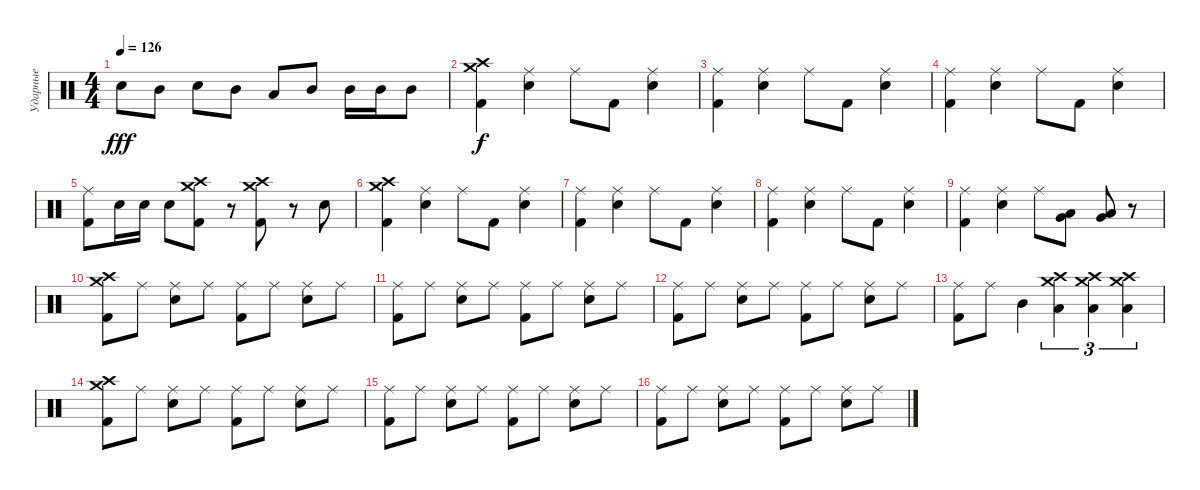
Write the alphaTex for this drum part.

\track ("Ударные" "Ударные") {instrument percussion}
\staff {score}
\articulation defaults
\ts (4 4)
\tempo 126
\clef neutral
\ks c "Snare (hit) 2".8{dy fff} "Mid Tom (hit)".8 "Electric Snare (hit)".8 "Mid Tom (hit)".8 "Low Tom (hit)".8 "Mid Tom (hit)".8 "Mid Tom (hit)".16 "Mid Tom (hit)".16 "Mid Tom (hit)".8
|
("Kick (hit) 2" "Crash high (hit)" "Crash medium (hit)").4{dy f} ("Snare (hit) 2" "Ride (middle)").4 "Ride (middle)".8 "Kick (hit) 2".8 ("Snare (hit) 2" "Ride (middle)").4 |
("Kick (hit) 2" "Ride (middle)").4 ("Snare (hit) 2" "Ride (middle)").4 "Ride (middle)".8 "Kick (hit) 2".8 ("Snare (hit) 2" "Ride (middle)").4 |
("Kick (hit) 2" "Ride (middle)").4 ("Snare (hit) 2" "Ride (middle)").4 "Ride (middle)".8 "Kick (hit) 2".8 ("Snare (hit) 2" "Ride (middle)").4 |
("Kick (hit) 2" "Ride (middle)").8 "Snare (hit) 2".16 "Snare (hit) 2".16 "Snare (hit) 2".8 ("Kick (hit) 2" "Crash high (hit)" "Crash medium (hit)").8 r.8 ("Kick (hit) 2" "Crash medium (hit)" "Crash high (hit)").8 r.8 "Snare (hit) 2".8 |
("Kick (hit) 2" "Crash high (hit)" "Crash medium (hit)").4 ("Snare (hit) 2" "Ride (middle)").4 "Ride (middle)".8 "Kick (hit) 2".8 ("Snare (hit) 2" "Ride (middle)").4 |
("Kick (hit) 2" "Ride (middle)").4 ("Snare (hit) 2" "Ride (middle)").4 "Ride (middle)".8 "Kick (hit) 2".8 ("Snare (hit) 2" "Ride (middle)").4 |
("Kick (hit) 2" "Ride (middle)").4 ("Snare (hit) 2" "Ride (middle)").4 "Ride (middle)".8 "Kick (hit) 2".8 ("Snare (hit) 2" "Ride (middle)").4 |
("Kick (hit) 2" "Ride (middle)").4 ("Snare (hit) 2" "Ride (middle)").4 "Ride (middle)".8 ("Low Tom (hit)" "Very Low Tom (hit)").8 ("Low Tom (hit)" "Very Low Tom (hit)").8 r.8 |
("Kick (hit) 2" "Crash high (hit)" "Crash medium (hit)").8 "Ride (middle)".8 ("Snare (hit) 2" "Ride (middle)").8 "Ride (middle)".8 ("Kick (hit) 2" "Ride (middle)").8 "Ride (middle)".8 ("Snare (hit) 2" "Ride (middle)").8 "Ride (middle)".8 |
("Kick (hit) 2" "Ride (middle)").8 "Ride (middle)".8 ("Snare (hit) 2" "Ride (middle)").8 "Ride (middle)".8 ("Kick (hit) 2" "Ride (middle)").8 "Ride (middle)".8 ("Snare (hit) 2" "Ride (middle)").8 "Ride (middle)".8 |
("Kick (hit) 2" "Ride (middle)").8 "Ride (middle)".8 ("Snare (hit) 2" "Ride (middle)").8 "Ride (middle)".8 ("Kick (hit) 2" "Ride (middle)").8 "Ride (middle)".8 ("Snare (hit) 2" "Ride (middle)").8 "Ride (middle)".8 |
("Kick (hit) 2" "Ride (middle)").8 "Ride (middle)".8 "Mid Tom (hit)".4 ("Crash high (hit)" "Crash medium (hit)" "Low Tom (hit)").4{tu (3 2)} ("Crash high (hit)" "Crash medium (hit)" "Low Tom (hit)").4{tu (3 2)} ("Crash high (hit)" "Crash medium (hit)" "Low Tom (hit)").4{tu (3 2)} |
("Kick (hit) 2" "Crash high (hit)" "Crash medium (hit)").8 "Ride (middle)".8 ("Snare (hit) 2" "Ride (middle)").8 "Ride (middle)".8 ("Kick (hit) 2" "Ride (middle)").8 "Ride (middle)".8 ("Snare (hit) 2" "Ride (middle)").8 "Ride (middle)".8 |
("Kick (hit) 2" "Ride (middle)").8 "Ride (middle)".8 ("Snare (hit) 2" "Ride (middle)").8 "Ride (middle)".8 ("Kick (hit) 2" "Ride (middle)").8 "Ride (middle)".8 ("Snare (hit) 2" "Ride (middle)").8 "Ride (middle)".8 |
("Kick (hit) 2" "Ride (middle)").8 "Ride (middle)".8 ("Snare (hit) 2" "Ride (middle)").8 "Ride (middle)".8 ("Kick (hit) 2" "Ride (middle)").8 "Ride (middle)".8 ("Snare (hit) 2" "Ride (middle)").8 "Ride (middle)".8
